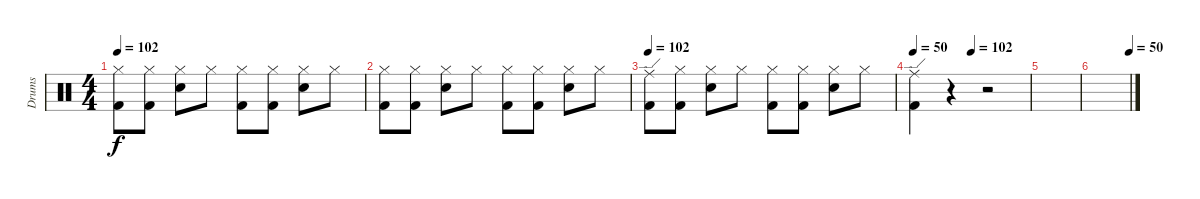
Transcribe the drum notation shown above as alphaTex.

\defaultSystemsLayout 4
\bracketExtendMode groupsimilarinstruments
\otherSystemsTrackNameOrientation horizontal
\track ("Drumkit (Bonham)" "Drums") {instrument percussion}
\staff {score}
\articulation defaults
\ts (4 4)
\tempo 102
\clef neutral
\scale
0.333333
\ks c
("Hi-Hat (closed)" "Kick (hit) 2").8{dy f beam Down} ("Hi-Hat (closed)" "Kick (hit) 2").8{beam Down} ("Hi-Hat (closed)" "Snare (hit) 2").8{beam Down} "Hi-Hat (closed)".8{beam Down} ("Hi-Hat (closed)" "Kick (hit) 2").8{beam Down} ("Hi-Hat (closed)" "Kick (hit) 2").8{beam Down} ("Hi-Hat (closed)" "Snare (hit) 2").8{beam Down} "Hi-Hat (closed)".8{beam Down} |
\scale
0.333333 ("Hi-Hat (closed)" "Kick (hit) 2").8{beam Down} ("Hi-Hat (closed)" "Kick (hit) 2").8{beam Down} ("Hi-Hat (closed)" "Snare (hit) 2").8{beam Down} "Hi-Hat (closed)".8{beam Down} ("Hi-Hat (closed)" "Kick (hit) 2").8{beam Down} ("Hi-Hat (closed)" "Kick (hit) 2").8{beam Down} ("Hi-Hat (closed)" "Snare (hit) 2").8{beam Down} "Hi-Hat (closed)".8{beam Down} |
\tempo 102
\scale
0.333333 ("Ride (edge)" "Kick (hit) 2").8{beam Down} ("Hi-Hat (closed)" "Kick (hit) 2").8{beam Down} ("Hi-Hat (closed)" "Snare (hit) 2").8{beam Down} "Hi-Hat (closed)".8{beam Down} ("Hi-Hat (closed)" "Kick (hit) 2").8{beam Down} ("Hi-Hat (closed)" "Kick (hit) 2").8{beam Down} ("Hi-Hat (closed)" "Snare (hit) 2").8{beam Down} "Hi-Hat (closed)".8{beam Down} |
\tempo 50
\tempo (102 0.5)
\scale
0.333333 ("Ride (edge)" "Kick (hit) 2").4{beam Down} r.4{beam Down} r.2{beam Down} |
\scale
0.333333 |
\tempo (50 1)
